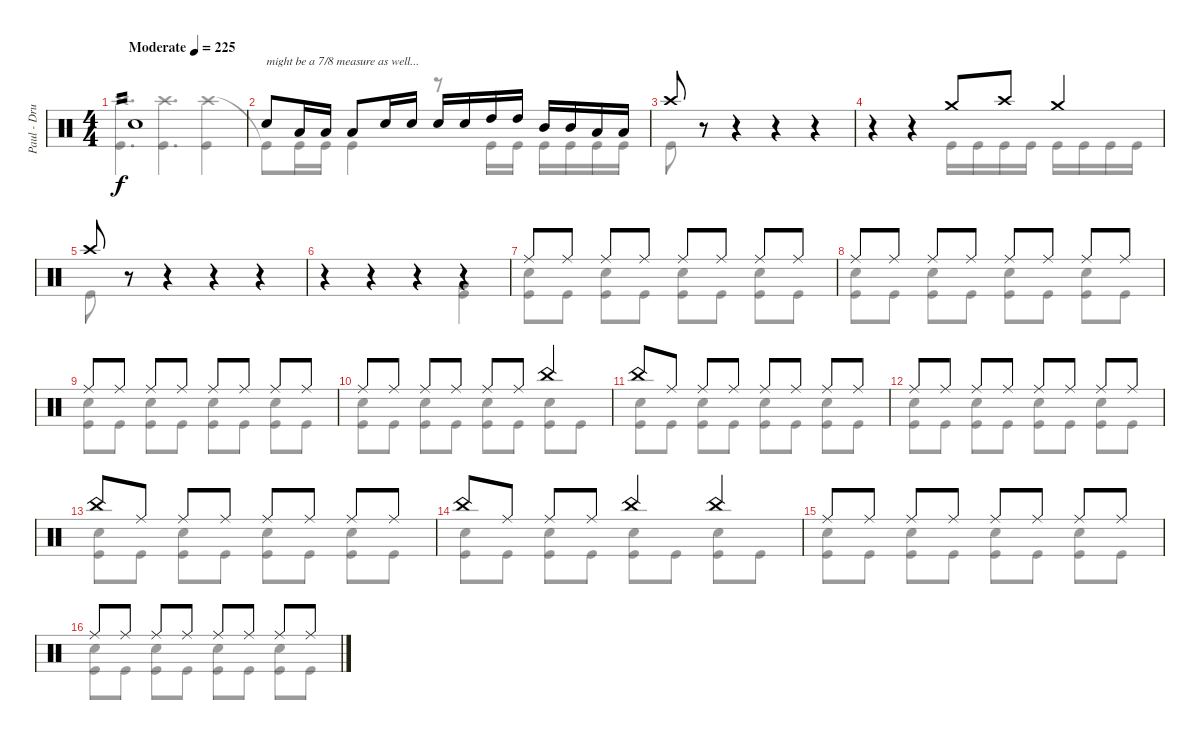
\track ("Paul - Drums" "Paul - Dru") {instrument percussion}
\staff {score}
\articulation defaults
\voice
\ts (4 4)
\tempo (225 "Moderate")
\clef neutral
\ks c "Snare (hit) 2".1{tp 2 dy f}
|
"Snare (hit) 2".8{txt "might be a 7/8 measure as well..."} "Low Tom (hit)".16 "Low Tom (hit)".16 "Low Tom (hit)".8 "Snare (hit) 2".16 "Snare (hit) 2".16 "Snare (hit) 2".16 "Snare (hit) 2".16 "High Tom (hit)".16 "High Tom (hit)".16 "Mid Tom (hit)".16 "Mid Tom (hit)".16 "Low Tom (hit)".16 "Low Tom (hit)".16 |
"Crash high (hit)".8 r.8 r.4 r.4 r.4 |
r.4 r.4 "Crash medium (hit)".8 "Crash high (hit)".8 "Crash medium (hit)".4 |
"Crash high (hit)".8 r.8 r.4 r.4 r.4 |
r.4 r.4 r.4 r.4 |
"Ride (middle)".8 "Ride (middle)".8 "Ride (middle)".8 "Ride (middle)".8 "Ride (middle)".8 "Ride (middle)".8 "Ride (middle)".8 "Ride (middle)".8 |
"Ride (middle)".8 "Ride (middle)".8 "Ride (middle)".8 "Ride (middle)".8 "Ride (middle)".8 "Ride (middle)".8 "Ride (middle)".8 "Ride (middle)".8 |
"Ride (middle)".8 "Ride (middle)".8 "Ride (middle)".8 "Ride (middle)".8 "Ride (middle)".8 "Ride (middle)".8 "Ride (middle)".8 "Ride (middle)".8 |
"Ride (middle)".8 "Ride (middle)".8 "Ride (middle)".8 "Ride (middle)".8 "Ride (middle)".8 "Ride (middle)".8 "China (hit)".4 |
"China (hit)".8 "Ride (middle)".8 "Ride (middle)".8 "Ride (middle)".8 "Ride (middle)".8 "Ride (middle)".8 "Ride (middle)".8 "Ride (middle)".8 |
"Ride (middle)".8 "Ride (middle)".8 "Ride (middle)".8 "Ride (middle)".8 "Ride (middle)".8 "Ride (middle)".8 "Ride (middle)".8 "Ride (middle)".8 |
"China (hit)".8 "Ride (middle)".8 "Ride (middle)".8 "Ride (middle)".8 "Ride (middle)".8 "Ride (middle)".8 "Ride (middle)".8 "Ride (middle)".8 |
"China (hit)".8 "Ride (middle)".8 "Ride (middle)".8 "Ride (middle)".8 "China (hit)".4 "China (hit)".4 |
"Ride (middle)".8 "Ride (middle)".8 "Ride (middle)".8 "Ride (middle)".8 "Ride (middle)".8 "Ride (middle)".8 "Ride (middle)".8 "Ride (middle)".8 |
"Ride (middle)".8 "Ride (middle)".8 "Ride (middle)".8 "Ride (middle)".8 "Ride (middle)".8 "Ride (middle)".8 "Ride (middle)".8 "Ride (middle)".8
\voice
\clef neutral
\ottava regular
\simile none
\ks c
("Crash high (hit)" "Kick (hit)").4{d dy f} ("Crash high (hit)" "Kick (hit)").4{d} ("Crash high (hit)" "Kick (hit)").4 |
"Kick (hit)"{t}.8 "Kick (hit)".16 "Kick (hit)".16 "Kick (hit)".4 r.8 "Kick (hit)".16 "Kick (hit)".16 "Kick (hit)".16 "Kick (hit)".16 "Kick (hit)".16 "Kick (hit)".16 |
"Kick (hit)".8 r.8 r.4 r.4 r.4 |
r.4 r.4 "Kick (hit)".16 "Kick (hit)".16 "Kick (hit)".16 "Kick (hit)".16 "Kick (hit)".16 "Kick (hit)".16 "Kick (hit)".16 "Kick (hit)".16 |
"Kick (hit)".8 r.8 r.4 r.4 r.4 |
r.4 r.4 r.4 ("Very Low Tom (hit)" "Kick (hit)").4 |
("Snare (hit) 2" "Kick (hit)").8 "Kick (hit)".8 ("Snare (hit) 2" "Kick (hit)").8 "Kick (hit)".8 ("Snare (hit) 2" "Kick (hit)").8 "Kick (hit)".8 ("Snare (hit) 2" "Kick (hit)").8 "Kick (hit)".8 |
("Snare (hit) 2" "Kick (hit)").8 "Kick (hit)".8 ("Snare (hit) 2" "Kick (hit)").8 "Kick (hit)".8 ("Snare (hit) 2" "Kick (hit)").8 "Kick (hit)".8 ("Snare (hit) 2" "Kick (hit)").8 "Kick (hit)".8 |
("Snare (hit) 2" "Kick (hit)").8 "Kick (hit)".8 ("Snare (hit) 2" "Kick (hit)").8 "Kick (hit)".8 ("Snare (hit) 2" "Kick (hit)").8 "Kick (hit)".8 ("Snare (hit) 2" "Kick (hit)").8 "Kick (hit)".8 |
("Snare (hit) 2" "Kick (hit)").8 "Kick (hit)".8 ("Snare (hit) 2" "Kick (hit)").8 "Kick (hit)".8 ("Snare (hit) 2" "Kick (hit)").8 "Kick (hit)".8 ("Snare (hit) 2" "Kick (hit)").8 "Kick (hit)".8 |
("Snare (hit) 2" "Kick (hit)").8 "Kick (hit)".8 ("Snare (hit) 2" "Kick (hit)").8 "Kick (hit)".8 ("Snare (hit) 2" "Kick (hit)").8 "Kick (hit)".8 ("Snare (hit) 2" "Kick (hit)").8 "Kick (hit)".8 |
("Snare (hit) 2" "Kick (hit)").8 "Kick (hit)".8 ("Snare (hit) 2" "Kick (hit)").8 "Kick (hit)".8 ("Snare (hit) 2" "Kick (hit)").8 "Kick (hit)".8 ("Snare (hit) 2" "Kick (hit)").8 "Kick (hit)".8 |
("Snare (hit) 2" "Kick (hit)").8 "Kick (hit)".8 ("Snare (hit) 2" "Kick (hit)").8 "Kick (hit)".8 ("Snare (hit) 2" "Kick (hit)").8 "Kick (hit)".8 ("Snare (hit) 2" "Kick (hit)").8 "Kick (hit)".8 |
("Snare (hit) 2" "Kick (hit)").8 "Kick (hit)".8 ("Snare (hit) 2" "Kick (hit)").8 "Kick (hit)".8 ("Snare (hit) 2" "Kick (hit)").8 "Kick (hit)".8 ("Snare (hit) 2" "Kick (hit)").8 "Kick (hit)".8 |
("Snare (hit) 2" "Kick (hit)").8 "Kick (hit)".8 ("Snare (hit) 2" "Kick (hit)").8 "Kick (hit)".8 ("Snare (hit) 2" "Kick (hit)").8 "Kick (hit)".8 ("Snare (hit) 2" "Kick (hit)").8 "Kick (hit)".8 |
("Snare (hit) 2" "Kick (hit)").8 "Kick (hit)".8 ("Snare (hit) 2" "Kick (hit)").8 "Kick (hit)".8 ("Snare (hit) 2" "Kick (hit)").8 "Kick (hit)".8 ("Snare (hit) 2" "Kick (hit)").8 "Kick (hit)".8
